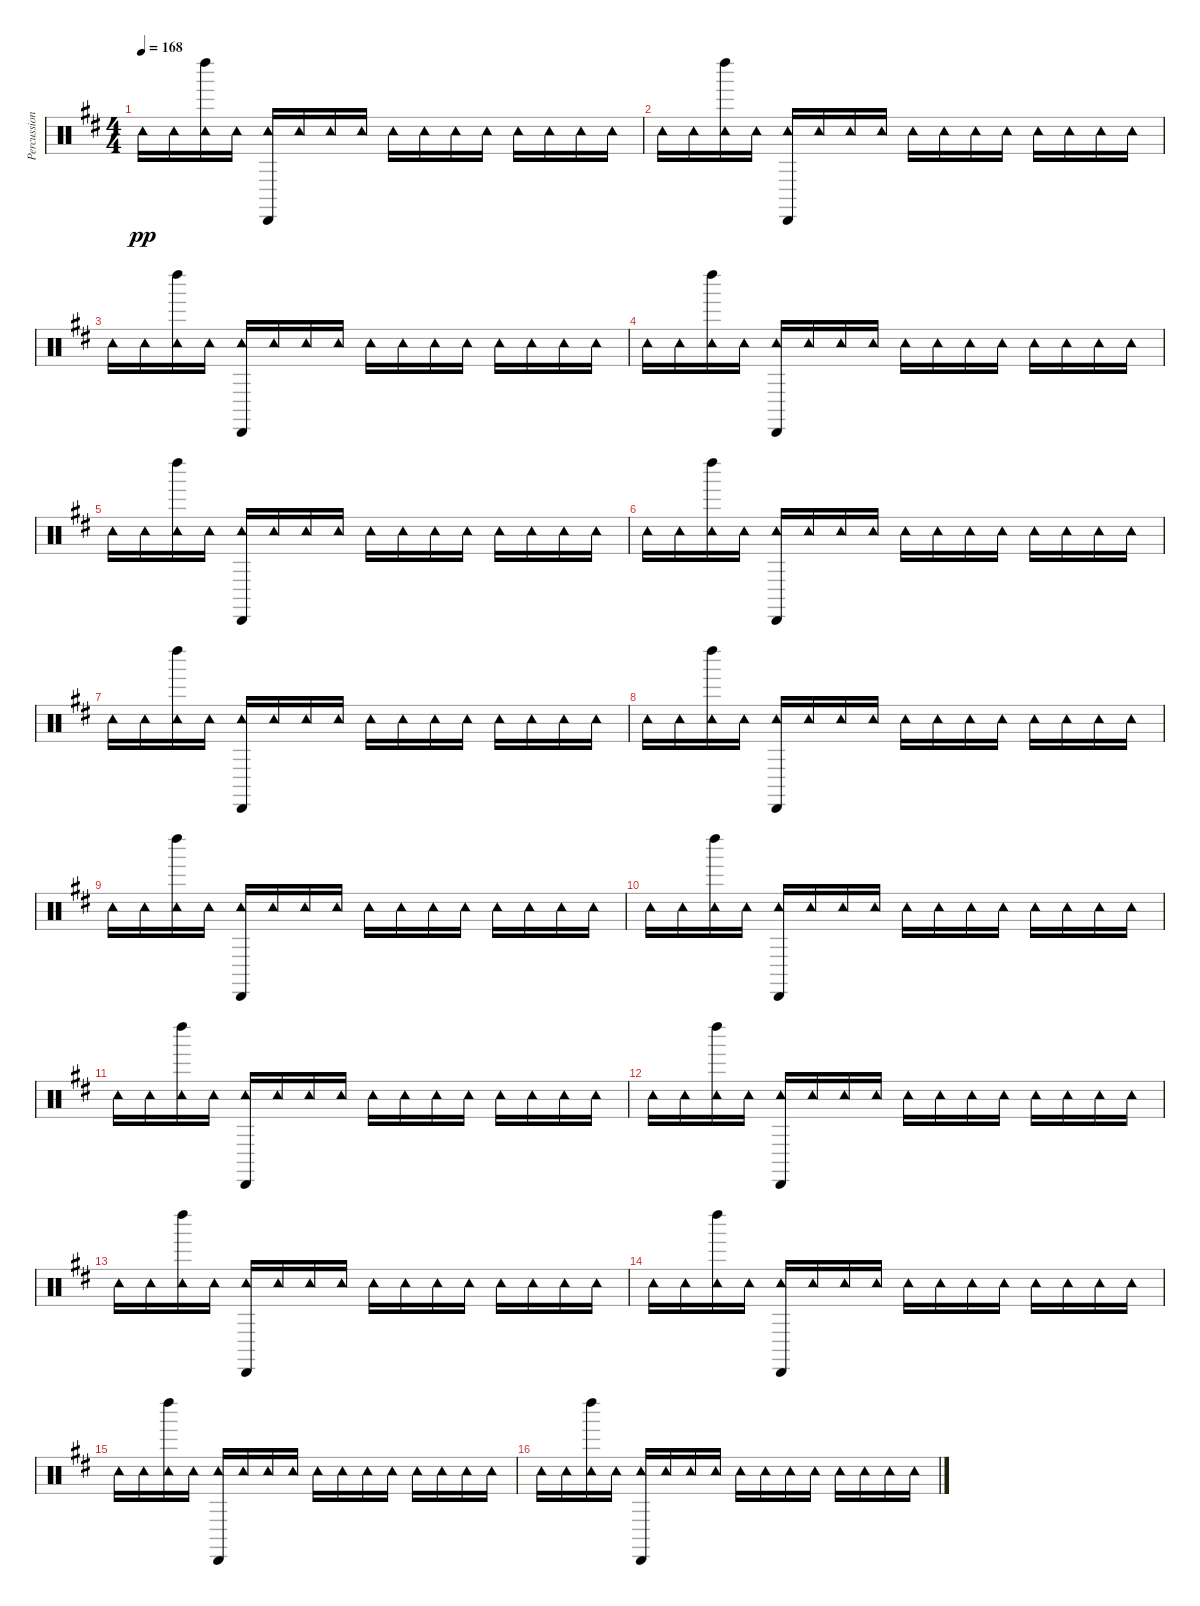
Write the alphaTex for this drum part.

\track ("Percussions" "Percussion") {instrument percussion}
\staff {score}
\articulation defaults
\ts (4 4)
\tempo 168
\clef neutral
\ks d "Tambourine (hit)".16{dy pp} "Tambourine (hit)".16
("Left Maraca (hit)" "Tambourine (hit)").16 "Tambourine (hit)".16 ("Cabasa (hit)" "Tambourine (hit)").16 "Tambourine (hit)".16 "Tambourine (hit)".16 "Tambourine (hit)".16 "Tambourine (hit)".16 "Tambourine (hit)".16 "Tambourine (hit)".16 "Tambourine (hit)".16 "Tambourine (hit)".16 "Tambourine (hit)".16 "Tambourine (hit)".16 "Tambourine (hit)".16 |
"Tambourine (hit)".16 "Tambourine (hit)".16 ("Left Maraca (hit)" "Tambourine (hit)").16 "Tambourine (hit)".16 ("Cabasa (hit)" "Tambourine (hit)").16 "Tambourine (hit)".16 "Tambourine (hit)".16 "Tambourine (hit)".16 "Tambourine (hit)".16 "Tambourine (hit)".16 "Tambourine (hit)".16 "Tambourine (hit)".16 "Tambourine (hit)".16 "Tambourine (hit)".16 "Tambourine (hit)".16 "Tambourine (hit)".16 |
"Tambourine (hit)".16 "Tambourine (hit)".16 ("Left Maraca (hit)" "Tambourine (hit)").16 "Tambourine (hit)".16 ("Cabasa (hit)" "Tambourine (hit)").16 "Tambourine (hit)".16 "Tambourine (hit)".16 "Tambourine (hit)".16 "Tambourine (hit)".16 "Tambourine (hit)".16 "Tambourine (hit)".16 "Tambourine (hit)".16 "Tambourine (hit)".16 "Tambourine (hit)".16 "Tambourine (hit)".16 "Tambourine (hit)".16 |
"Tambourine (hit)".16 "Tambourine (hit)".16 ("Left Maraca (hit)" "Tambourine (hit)").16 "Tambourine (hit)".16 ("Cabasa (hit)" "Tambourine (hit)").16 "Tambourine (hit)".16 "Tambourine (hit)".16 "Tambourine (hit)".16 "Tambourine (hit)".16 "Tambourine (hit)".16 "Tambourine (hit)".16 "Tambourine (hit)".16 "Tambourine (hit)".16 "Tambourine (hit)".16 "Tambourine (hit)".16 "Tambourine (hit)".16 |
"Tambourine (hit)".16 "Tambourine (hit)".16 ("Left Maraca (hit)" "Tambourine (hit)").16 "Tambourine (hit)".16 ("Cabasa (hit)" "Tambourine (hit)").16 "Tambourine (hit)".16 "Tambourine (hit)".16 "Tambourine (hit)".16 "Tambourine (hit)".16 "Tambourine (hit)".16 "Tambourine (hit)".16 "Tambourine (hit)".16 "Tambourine (hit)".16 "Tambourine (hit)".16 "Tambourine (hit)".16 "Tambourine (hit)".16 |
"Tambourine (hit)".16 "Tambourine (hit)".16 ("Left Maraca (hit)" "Tambourine (hit)").16 "Tambourine (hit)".16 ("Cabasa (hit)" "Tambourine (hit)").16 "Tambourine (hit)".16 "Tambourine (hit)".16 "Tambourine (hit)".16 "Tambourine (hit)".16 "Tambourine (hit)".16 "Tambourine (hit)".16 "Tambourine (hit)".16 "Tambourine (hit)".16 "Tambourine (hit)".16 "Tambourine (hit)".16 "Tambourine (hit)".16 |
"Tambourine (hit)".16 "Tambourine (hit)".16 ("Left Maraca (hit)" "Tambourine (hit)").16 "Tambourine (hit)".16 ("Cabasa (hit)" "Tambourine (hit)").16 "Tambourine (hit)".16 "Tambourine (hit)".16 "Tambourine (hit)".16 "Tambourine (hit)".16 "Tambourine (hit)".16 "Tambourine (hit)".16 "Tambourine (hit)".16 "Tambourine (hit)".16 "Tambourine (hit)".16 "Tambourine (hit)".16 "Tambourine (hit)".16 |
"Tambourine (hit)".16 "Tambourine (hit)".16 ("Left Maraca (hit)" "Tambourine (hit)").16 "Tambourine (hit)".16 ("Cabasa (hit)" "Tambourine (hit)").16 "Tambourine (hit)".16 "Tambourine (hit)".16 "Tambourine (hit)".16 "Tambourine (hit)".16 "Tambourine (hit)".16 "Tambourine (hit)".16 "Tambourine (hit)".16 "Tambourine (hit)".16 "Tambourine (hit)".16 "Tambourine (hit)".16 "Tambourine (hit)".16 |
"Tambourine (hit)".16 "Tambourine (hit)".16 ("Left Maraca (hit)" "Tambourine (hit)").16 "Tambourine (hit)".16 ("Cabasa (hit)" "Tambourine (hit)").16 "Tambourine (hit)".16 "Tambourine (hit)".16 "Tambourine (hit)".16 "Tambourine (hit)".16 "Tambourine (hit)".16 "Tambourine (hit)".16 "Tambourine (hit)".16 "Tambourine (hit)".16 "Tambourine (hit)".16 "Tambourine (hit)".16 "Tambourine (hit)".16 |
"Tambourine (hit)".16 "Tambourine (hit)".16 ("Left Maraca (hit)" "Tambourine (hit)").16 "Tambourine (hit)".16 ("Cabasa (hit)" "Tambourine (hit)").16 "Tambourine (hit)".16 "Tambourine (hit)".16 "Tambourine (hit)".16 "Tambourine (hit)".16 "Tambourine (hit)".16 "Tambourine (hit)".16 "Tambourine (hit)".16 "Tambourine (hit)".16 "Tambourine (hit)".16 "Tambourine (hit)".16 "Tambourine (hit)".16 |
"Tambourine (hit)".16 "Tambourine (hit)".16 ("Left Maraca (hit)" "Tambourine (hit)").16 "Tambourine (hit)".16 ("Cabasa (hit)" "Tambourine (hit)").16 "Tambourine (hit)".16 "Tambourine (hit)".16 "Tambourine (hit)".16 "Tambourine (hit)".16 "Tambourine (hit)".16 "Tambourine (hit)".16 "Tambourine (hit)".16 "Tambourine (hit)".16 "Tambourine (hit)".16 "Tambourine (hit)".16 "Tambourine (hit)".16 |
"Tambourine (hit)".16 "Tambourine (hit)".16 ("Left Maraca (hit)" "Tambourine (hit)").16 "Tambourine (hit)".16 ("Cabasa (hit)" "Tambourine (hit)").16 "Tambourine (hit)".16 "Tambourine (hit)".16 "Tambourine (hit)".16 "Tambourine (hit)".16 "Tambourine (hit)".16 "Tambourine (hit)".16 "Tambourine (hit)".16 "Tambourine (hit)".16 "Tambourine (hit)".16 "Tambourine (hit)".16 "Tambourine (hit)".16 |
"Tambourine (hit)".16 "Tambourine (hit)".16 ("Left Maraca (hit)" "Tambourine (hit)").16 "Tambourine (hit)".16 ("Cabasa (hit)" "Tambourine (hit)").16 "Tambourine (hit)".16 "Tambourine (hit)".16 "Tambourine (hit)".16 "Tambourine (hit)".16 "Tambourine (hit)".16 "Tambourine (hit)".16 "Tambourine (hit)".16 "Tambourine (hit)".16 "Tambourine (hit)".16 "Tambourine (hit)".16 "Tambourine (hit)".16 |
"Tambourine (hit)".16 "Tambourine (hit)".16 ("Left Maraca (hit)" "Tambourine (hit)").16 "Tambourine (hit)".16 ("Cabasa (hit)" "Tambourine (hit)").16 "Tambourine (hit)".16 "Tambourine (hit)".16 "Tambourine (hit)".16 "Tambourine (hit)".16 "Tambourine (hit)".16 "Tambourine (hit)".16 "Tambourine (hit)".16 "Tambourine (hit)".16 "Tambourine (hit)".16 "Tambourine (hit)".16 "Tambourine (hit)".16 |
"Tambourine (hit)".16 "Tambourine (hit)".16 ("Left Maraca (hit)" "Tambourine (hit)").16 "Tambourine (hit)".16 ("Cabasa (hit)" "Tambourine (hit)").16 "Tambourine (hit)".16 "Tambourine (hit)".16 "Tambourine (hit)".16 "Tambourine (hit)".16 "Tambourine (hit)".16 "Tambourine (hit)".16 "Tambourine (hit)".16 "Tambourine (hit)".16 "Tambourine (hit)".16 "Tambourine (hit)".16 "Tambourine (hit)".16 |
"Tambourine (hit)".16 "Tambourine (hit)".16 ("Left Maraca (hit)" "Tambourine (hit)").16 "Tambourine (hit)".16 ("Cabasa (hit)" "Tambourine (hit)").16 "Tambourine (hit)".16 "Tambourine (hit)".16 "Tambourine (hit)".16 "Tambourine (hit)".16 "Tambourine (hit)".16 "Tambourine (hit)".16 "Tambourine (hit)".16 "Tambourine (hit)".16 "Tambourine (hit)".16 "Tambourine (hit)".16 "Tambourine (hit)".16
